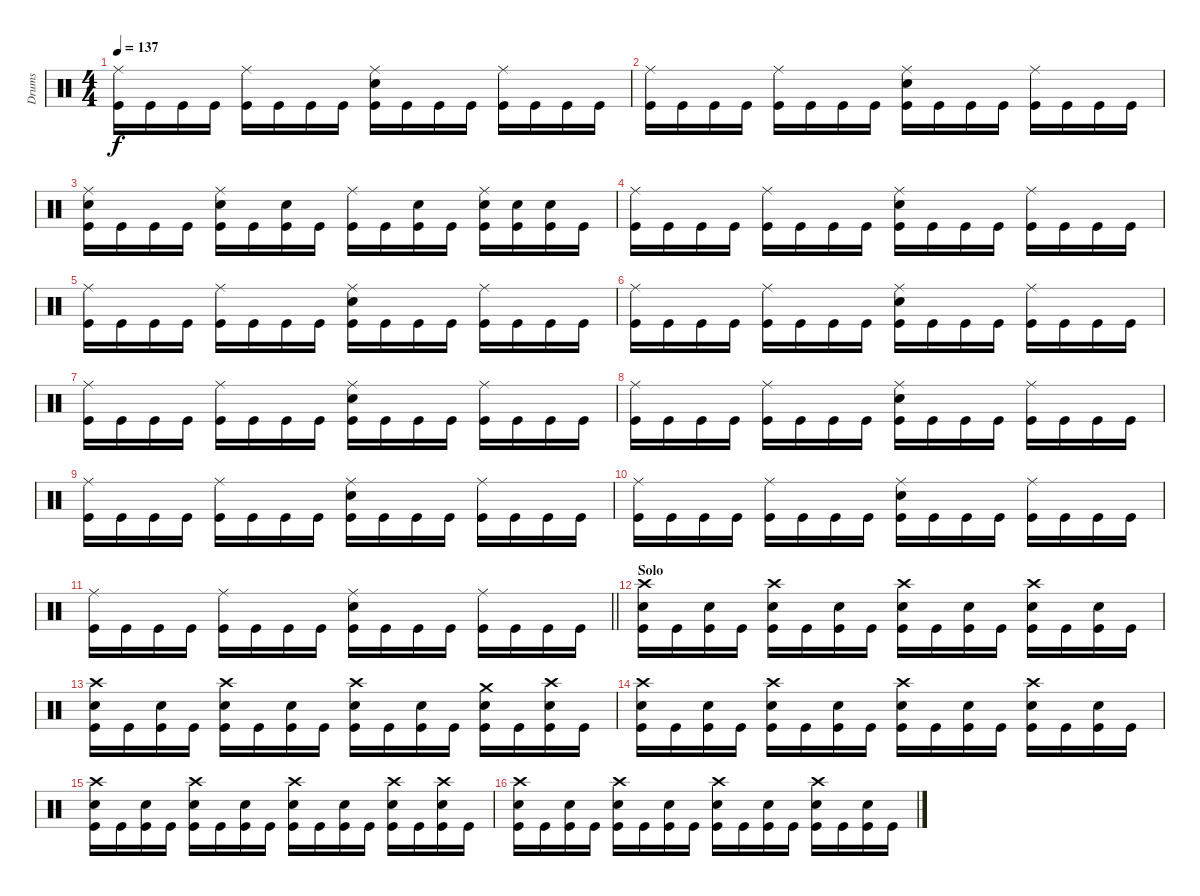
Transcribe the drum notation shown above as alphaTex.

\track ("Drums" "Drums") {instrument percussion}
\staff {score}
\articulation defaults
\ts (4 4)
\tempo 137
\clef neutral
\ks c
("Ride (middle)" "Kick (hit)").16{dy f} "Kick (hit)".16 "Kick (hit)".16 "Kick (hit)".16 ("Ride (middle)" "Kick (hit)").16 "Kick (hit)".16 "Kick (hit)".16 "Kick (hit)".16 ("Ride (middle)" "Snare (hit) 2" "Kick (hit)").16 "Kick (hit)".16 "Kick (hit)".16 "Kick (hit)".16 ("Ride (middle)" "Kick (hit)").16 "Kick (hit)".16 "Kick (hit)".16 "Kick (hit)".16 |
("Ride (middle)" "Kick (hit)").16 "Kick (hit)".16 "Kick (hit)".16 "Kick (hit)".16 ("Ride (middle)" "Kick (hit)").16 "Kick (hit)".16 "Kick (hit)".16 "Kick (hit)".16 ("Ride (middle)" "Snare (hit) 2" "Kick (hit)").16 "Kick (hit)".16 "Kick (hit)".16 "Kick (hit)".16 ("Ride (middle)" "Kick (hit)").16 "Kick (hit)".16 "Kick (hit)".16 "Kick (hit)".16 |
("Ride (middle)" "Snare (hit) 2" "Kick (hit)").16 "Kick (hit)".16 "Kick (hit)".16 "Kick (hit)".16 ("Ride (middle)" "Snare (hit) 2" "Kick (hit)").16 "Kick (hit)".16 ("Snare (hit) 2" "Kick (hit)").16 "Kick (hit)".16 ("Ride (middle)" "Kick (hit)").16 "Kick (hit)".16 ("Snare (hit) 2" "Kick (hit)").16 "Kick (hit)".16 ("Ride (middle)" "Snare (hit) 2" "Kick (hit)").16 ("Snare (hit) 2" "Kick (hit)").16 ("Snare (hit) 2" "Kick (hit)").16 "Kick (hit)".16 |
("Ride (middle)" "Kick (hit)").16 "Kick (hit)".16 "Kick (hit)".16 "Kick (hit)".16 ("Ride (middle)" "Kick (hit)").16 "Kick (hit)".16 "Kick (hit)".16 "Kick (hit)".16 ("Ride (middle)" "Snare (hit) 2" "Kick (hit)").16 "Kick (hit)".16 "Kick (hit)".16 "Kick (hit)".16 ("Ride (middle)" "Kick (hit)").16 "Kick (hit)".16 "Kick (hit)".16 "Kick (hit)".16 |
("Ride (middle)" "Kick (hit)").16 "Kick (hit)".16 "Kick (hit)".16 "Kick (hit)".16 ("Ride (middle)" "Kick (hit)").16 "Kick (hit)".16 "Kick (hit)".16 "Kick (hit)".16 ("Ride (middle)" "Snare (hit) 2" "Kick (hit)").16 "Kick (hit)".16 "Kick (hit)".16 "Kick (hit)".16 ("Ride (middle)" "Kick (hit)").16 "Kick (hit)".16 "Kick (hit)".16 "Kick (hit)".16 |
("Ride (middle)" "Kick (hit)").16 "Kick (hit)".16 "Kick (hit)".16 "Kick (hit)".16 ("Ride (middle)" "Kick (hit)").16 "Kick (hit)".16 "Kick (hit)".16 "Kick (hit)".16 ("Ride (middle)" "Snare (hit) 2" "Kick (hit)").16 "Kick (hit)".16 "Kick (hit)".16 "Kick (hit)".16 ("Ride (middle)" "Kick (hit)").16 "Kick (hit)".16 "Kick (hit)".16 "Kick (hit)".16 |
("Ride (middle)" "Kick (hit)").16 "Kick (hit)".16 "Kick (hit)".16 "Kick (hit)".16 ("Ride (middle)" "Kick (hit)").16 "Kick (hit)".16 "Kick (hit)".16 "Kick (hit)".16 ("Ride (middle)" "Snare (hit) 2" "Kick (hit)").16 "Kick (hit)".16 "Kick (hit)".16 "Kick (hit)".16 ("Ride (middle)" "Kick (hit)").16 "Kick (hit)".16 "Kick (hit)".16 "Kick (hit)".16 |
("Ride (middle)" "Kick (hit)").16 "Kick (hit)".16 "Kick (hit)".16 "Kick (hit)".16 ("Ride (middle)" "Kick (hit)").16 "Kick (hit)".16 "Kick (hit)".16 "Kick (hit)".16 ("Ride (middle)" "Snare (hit) 2" "Kick (hit)").16 "Kick (hit)".16 "Kick (hit)".16 "Kick (hit)".16 ("Ride (middle)" "Kick (hit)").16 "Kick (hit)".16 "Kick (hit)".16 "Kick (hit)".16 |
("Ride (middle)" "Kick (hit)").16 "Kick (hit)".16 "Kick (hit)".16 "Kick (hit)".16 ("Ride (middle)" "Kick (hit)").16 "Kick (hit)".16 "Kick (hit)".16 "Kick (hit)".16 ("Ride (middle)" "Snare (hit) 2" "Kick (hit)").16 "Kick (hit)".16 "Kick (hit)".16 "Kick (hit)".16 ("Ride (middle)" "Kick (hit)").16 "Kick (hit)".16 "Kick (hit)".16 "Kick (hit)".16 |
("Ride (middle)" "Kick (hit)").16 "Kick (hit)".16 "Kick (hit)".16 "Kick (hit)".16 ("Ride (middle)" "Kick (hit)").16 "Kick (hit)".16 "Kick (hit)".16 "Kick (hit)".16 ("Ride (middle)" "Snare (hit) 2" "Kick (hit)").16 "Kick (hit)".16 "Kick (hit)".16 "Kick (hit)".16 ("Ride (middle)" "Kick (hit)").16 "Kick (hit)".16 "Kick (hit)".16 "Kick (hit)".16 |
\barLineRight lightlight
("Ride (middle)" "Kick (hit)").16 "Kick (hit)".16 "Kick (hit)".16 "Kick (hit)".16 ("Ride (middle)" "Kick (hit)").16 "Kick (hit)".16 "Kick (hit)".16 "Kick (hit)".16 ("Ride (middle)" "Snare (hit) 2" "Kick (hit)").16 "Kick (hit)".16 "Kick (hit)".16 "Kick (hit)".16 ("Ride (middle)" "Kick (hit)").16 "Kick (hit)".16 "Kick (hit)".16 "Kick (hit)".16 |
\section ("" "Solo")
("Crash high (hit)" "Snare (hit) 2" "Kick (hit)").16{volume 6} "Kick (hit)".16 ("Snare (hit) 2" "Kick (hit)").16 "Kick (hit)".16 ("Crash high (hit)" "Snare (hit) 2" "Kick (hit)").16 "Kick (hit)".16 ("Snare (hit) 2" "Kick (hit)").16 "Kick (hit)".16 ("Crash high (hit)" "Snare (hit) 2" "Kick (hit)").16 "Kick (hit)".16 ("Snare (hit) 2" "Kick (hit)").16 "Kick (hit)".16 ("Crash high (hit)" "Snare (hit) 2" "Kick (hit)").16 "Kick (hit)".16 ("Snare (hit) 2" "Kick (hit)").16 "Kick (hit)".16 |
("Crash high (hit)" "Snare (hit) 2" "Kick (hit)").16 "Kick (hit)".16 ("Snare (hit) 2" "Kick (hit)").16 "Kick (hit)".16 ("Crash high (hit)" "Snare (hit) 2" "Kick (hit)").16 "Kick (hit)".16 ("Snare (hit) 2" "Kick (hit)").16 "Kick (hit)".16 ("Crash high (hit)" "Snare (hit) 2" "Kick (hit)").16 "Kick (hit)".16 ("Snare (hit) 2" "Kick (hit)").16 "Kick (hit)".16 ("Crash medium (hit)" "Snare (hit) 2" "Kick (hit)").16 "Kick (hit)".16 ("Crash high (hit)" "Snare (hit) 2" "Kick (hit)").16 "Kick (hit)".16 |
("Crash high (hit)" "Snare (hit) 2" "Kick (hit)").16 "Kick (hit)".16 ("Snare (hit) 2" "Kick (hit)").16 "Kick (hit)".16 ("Crash high (hit)" "Snare (hit) 2" "Kick (hit)").16 "Kick (hit)".16 ("Snare (hit) 2" "Kick (hit)").16 "Kick (hit)".16 ("Crash high (hit)" "Snare (hit) 2" "Kick (hit)").16 "Kick (hit)".16 ("Snare (hit) 2" "Kick (hit)").16 "Kick (hit)".16 ("Crash high (hit)" "Snare (hit) 2" "Kick (hit)").16 "Kick (hit)".16 ("Snare (hit) 2" "Kick (hit)").16 "Kick (hit)".16 |
("Crash high (hit)" "Snare (hit) 2" "Kick (hit)").16 "Kick (hit)".16 ("Snare (hit) 2" "Kick (hit)").16 "Kick (hit)".16 ("Crash high (hit)" "Snare (hit) 2" "Kick (hit)").16 "Kick (hit)".16 ("Snare (hit) 2" "Kick (hit)").16 "Kick (hit)".16 ("Crash high (hit)" "Snare (hit) 2" "Kick (hit)").16 "Kick (hit)".16 ("Snare (hit) 2" "Kick (hit)").16 "Kick (hit)".16 ("Crash high (hit)" "Snare (hit) 2" "Kick (hit)").16 "Kick (hit)".16 ("Crash high (hit)" "Snare (hit) 2" "Kick (hit)").16 "Kick (hit)".16 |
("Crash high (hit)" "Snare (hit) 2" "Kick (hit)").16 "Kick (hit)".16 ("Snare (hit) 2" "Kick (hit)").16 "Kick (hit)".16 ("Crash high (hit)" "Snare (hit) 2" "Kick (hit)").16 "Kick (hit)".16 ("Snare (hit) 2" "Kick (hit)").16 "Kick (hit)".16 ("Crash high (hit)" "Snare (hit) 2" "Kick (hit)").16 "Kick (hit)".16 ("Snare (hit) 2" "Kick (hit)").16 "Kick (hit)".16 ("Crash high (hit)" "Snare (hit) 2" "Kick (hit)").16 "Kick (hit)".16 ("Snare (hit) 2" "Kick (hit)").16 "Kick (hit)".16
